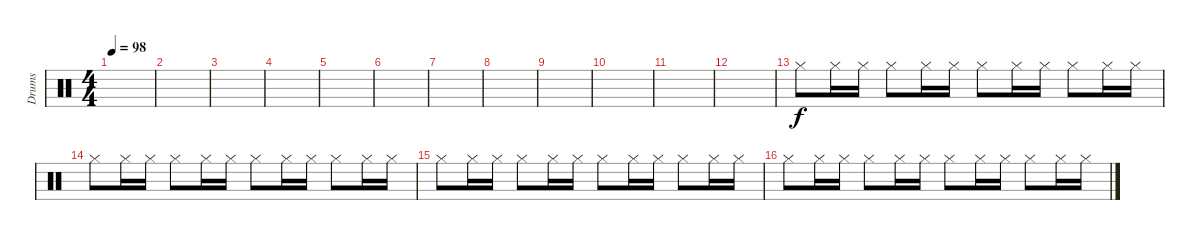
\track ("Drums" "Drums") {instrument percussion}
\staff {score}
\articulation defaults
\ts (4 4)
\tempo 98
\clef neutral
\ks c
|
|
|
|
|
|
|
|
|
|
|
|
"Hi-Hat (closed)".8 "Hi-Hat (closed)".16 "Hi-Hat (closed)".16 "Hi-Hat (closed)".8 "Hi-Hat (closed)".16 "Hi-Hat (closed)".16 "Hi-Hat (closed)".8 "Hi-Hat (closed)".16 "Hi-Hat (closed)".16 "Hi-Hat (closed)".8 "Hi-Hat (closed)".16 "Hi-Hat (closed)".16 |
"Hi-Hat (closed)".8 "Hi-Hat (closed)".16 "Hi-Hat (closed)".16 "Hi-Hat (closed)".8 "Hi-Hat (closed)".16 "Hi-Hat (closed)".16 "Hi-Hat (closed)".8 "Hi-Hat (closed)".16 "Hi-Hat (closed)".16 "Hi-Hat (closed)".8 "Hi-Hat (closed)".16 "Hi-Hat (closed)".16 |
"Hi-Hat (closed)".8 "Hi-Hat (closed)".16 "Hi-Hat (closed)".16 "Hi-Hat (closed)".8 "Hi-Hat (closed)".16 "Hi-Hat (closed)".16 "Hi-Hat (closed)".8 "Hi-Hat (closed)".16 "Hi-Hat (closed)".16 "Hi-Hat (closed)".8 "Hi-Hat (closed)".16 "Hi-Hat (closed)".16 |
"Hi-Hat (closed)".8 "Hi-Hat (closed)".16 "Hi-Hat (closed)".16 "Hi-Hat (closed)".8 "Hi-Hat (closed)".16 "Hi-Hat (closed)".16 "Hi-Hat (closed)".8 "Hi-Hat (closed)".16 "Hi-Hat (closed)".16 "Hi-Hat (closed)".8 "Hi-Hat (closed)".16 "Hi-Hat (closed)".16
